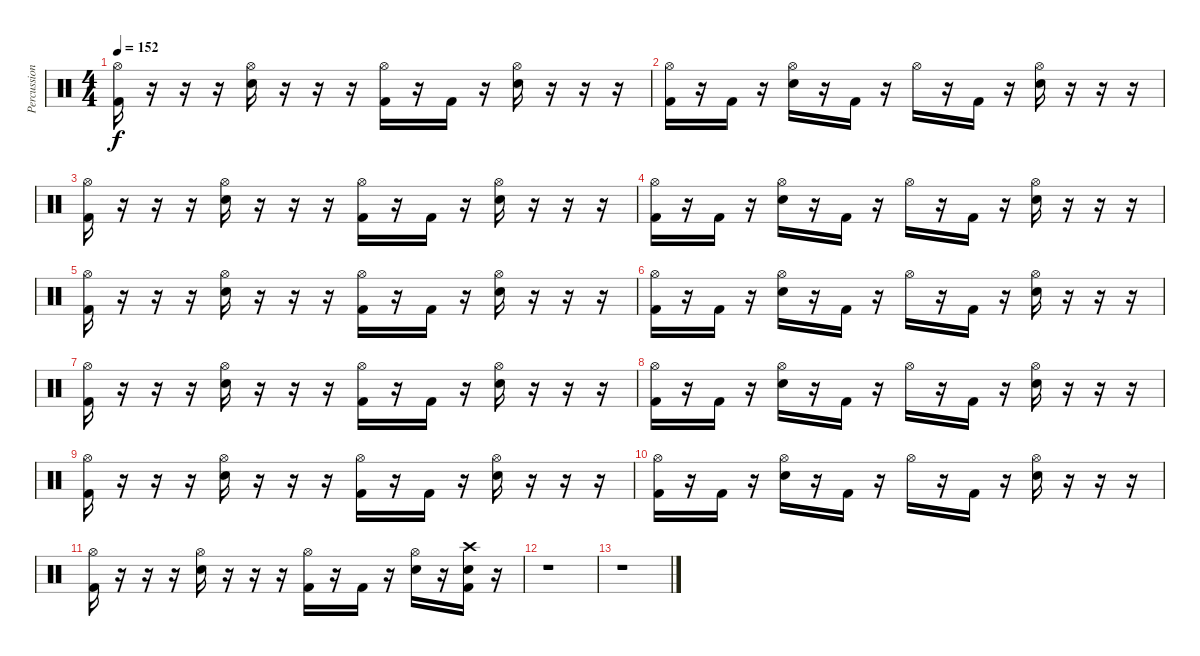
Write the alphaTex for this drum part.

\track ("Percussions" "Percussion") {instrument percussion}
\staff {score}
\articulation defaults
\ts (4 4)
\tempo 152
\clef neutral
\ks c
("Kick (hit) 2" "Hi-Hat (open)").16{dy f} r.16 r.16 r.16 ("Electric Snare (hit)" "Hi-Hat (open)").16 r.16 r.16 r.16 ("Kick (hit) 2" "Hi-Hat (open)").16 r.16 "Kick (hit) 2".16 r.16 ("Electric Snare (hit)" "Hi-Hat (open)").16 r.16 r.16 r.16 |
("Kick (hit) 2" "Hi-Hat (open)").16 r.16 "Kick (hit) 2".16 r.16 ("Electric Snare (hit)" "Hi-Hat (open)").16 r.16 "Kick (hit) 2".16 r.16 "Hi-Hat (open)".16 r.16 "Kick (hit) 2".16 r.16 ("Electric Snare (hit)" "Hi-Hat (open)").16 r.16 r.16 r.16 |
("Kick (hit) 2" "Hi-Hat (open)").16 r.16 r.16 r.16 ("Electric Snare (hit)" "Hi-Hat (open)").16 r.16 r.16 r.16 ("Kick (hit) 2" "Hi-Hat (open)").16 r.16 "Kick (hit) 2".16 r.16 ("Electric Snare (hit)" "Hi-Hat (open)").16 r.16 r.16 r.16 |
("Kick (hit) 2" "Hi-Hat (open)").16 r.16 "Kick (hit) 2".16 r.16 ("Electric Snare (hit)" "Hi-Hat (open)").16 r.16 "Kick (hit) 2".16 r.16 "Hi-Hat (open)".16 r.16 "Kick (hit) 2".16 r.16 ("Electric Snare (hit)" "Hi-Hat (open)").16 r.16 r.16 r.16 |
("Kick (hit) 2" "Hi-Hat (open)").16 r.16 r.16 r.16 ("Electric Snare (hit)" "Hi-Hat (open)").16 r.16 r.16 r.16 ("Kick (hit) 2" "Hi-Hat (open)").16 r.16 "Kick (hit) 2".16 r.16 ("Electric Snare (hit)" "Hi-Hat (open)").16 r.16 r.16 r.16 |
("Kick (hit) 2" "Hi-Hat (open)").16 r.16 "Kick (hit) 2".16 r.16 ("Electric Snare (hit)" "Hi-Hat (open)").16 r.16 "Kick (hit) 2".16 r.16 "Hi-Hat (open)".16 r.16 "Kick (hit) 2".16 r.16 ("Electric Snare (hit)" "Hi-Hat (open)").16 r.16 r.16 r.16 |
("Kick (hit) 2" "Hi-Hat (open)").16 r.16 r.16 r.16 ("Electric Snare (hit)" "Hi-Hat (open)").16 r.16 r.16 r.16 ("Kick (hit) 2" "Hi-Hat (open)").16 r.16 "Kick (hit) 2".16 r.16 ("Electric Snare (hit)" "Hi-Hat (open)").16 r.16 r.16 r.16 |
("Kick (hit) 2" "Hi-Hat (open)").16 r.16 "Kick (hit) 2".16 r.16 ("Electric Snare (hit)" "Hi-Hat (open)").16 r.16 "Kick (hit) 2".16 r.16 "Hi-Hat (open)".16 r.16 "Kick (hit) 2".16 r.16 ("Electric Snare (hit)" "Hi-Hat (open)").16 r.16 r.16 r.16 |
("Kick (hit) 2" "Hi-Hat (open)").16 r.16 r.16 r.16 ("Electric Snare (hit)" "Hi-Hat (open)").16 r.16 r.16 r.16 ("Kick (hit) 2" "Hi-Hat (open)").16 r.16 "Kick (hit) 2".16 r.16 ("Electric Snare (hit)" "Hi-Hat (open)").16 r.16 r.16 r.16 |
("Kick (hit) 2" "Hi-Hat (open)").16 r.16 "Kick (hit) 2".16 r.16 ("Electric Snare (hit)" "Hi-Hat (open)").16 r.16 "Kick (hit) 2".16 r.16 "Hi-Hat (open)".16 r.16 "Kick (hit) 2".16 r.16 ("Electric Snare (hit)" "Hi-Hat (open)").16 r.16 r.16 r.16 |
("Kick (hit) 2" "Hi-Hat (open)").16 r.16 r.16 r.16 ("Electric Snare (hit)" "Hi-Hat (open)").16 r.16 r.16 r.16 ("Kick (hit) 2" "Hi-Hat (open)").16 r.16 "Kick (hit) 2".16 r.16 ("Electric Snare (hit)" "Hi-Hat (open)").16 r.16 ("Kick (hit) 2" "Electric Snare (hit)" "Crash high (hit)").16 r.16 |
r.1 |
r.1
